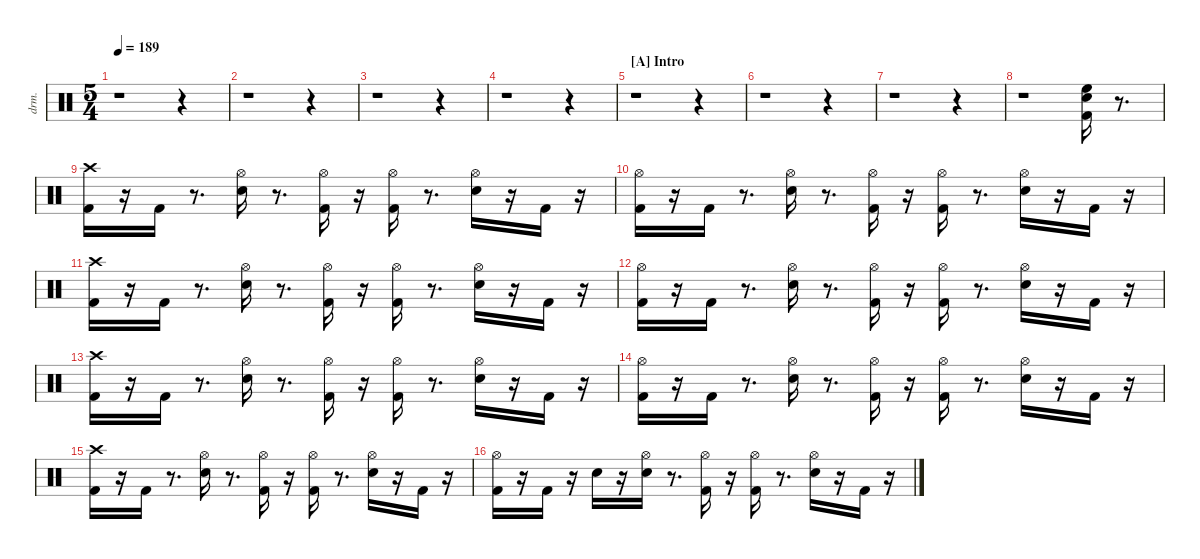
\defaultSystemsLayout 4
\hideDynamics
\bracketExtendMode nobrackets
\track ("EZdrummer 3" "drm.") {instrument percussion}
\staff {score}
\articulation defaults
\ts (5 4)
\tempo 189
\clef neutral
\ks aminor
r.1{dy fff} r.4 |
r.1 r.4 |
r.1 r.4 |
r.1 r.4 |
\section ("A" "Intro")
r.1 r.4 |
r.1 r.4 |
r.1 r.4 |
r.1 ("Kick (hit) 2" "Snare (hit) 2" "High Floor Tom (hit)").16 r.8{d} |
("Kick (hit) 2" "Crash high (hit)"{acc #}).16 r.16 "Kick (hit) 2".16{dy ff} r.8{d} ("Snare (hit) 2" "Hi-Hat (open)"{acc #}).16{dy fff} r.8{d} ("Kick (hit) 2" "Hi-Hat (open)"{acc #}).16{dy mf} r.16 ("Kick (hit) 2" "Hi-Hat (open)"{acc #}).16{dy fff} r.8{d} ("Snare (hit) 2" "Hi-Hat (open)"{acc #}).16{dy ff} r.16 "Kick (hit) 2".16{dy mf} r.16 |
("Kick (hit) 2" "Hi-Hat (open)"{acc #}).16{dy fff} r.16 "Kick (hit) 2".16{dy mf} r.8{d} ("Snare (hit) 2" "Hi-Hat (open)"{acc #}).16{dy fff} r.8{d} ("Kick (hit) 2" "Hi-Hat (open)"{acc #}).16{dy ff} r.16 ("Kick (hit) 2" "Hi-Hat (open)"{acc #}).16 r.8{d} ("Snare (hit) 2" "Hi-Hat (open)"{acc #}).16 r.16 "Kick (hit) 2".16{dy mf} r.16 |
("Kick (hit) 2" "Crash high (hit)"{acc #}).16{dy fff} r.16 "Kick (hit) 2".16{dy ff} r.8{d} ("Snare (hit) 2" "Hi-Hat (open)"{acc #}).16{dy fff} r.8{d} ("Kick (hit) 2" "Hi-Hat (open)"{acc #}).16{dy mf} r.16 ("Kick (hit) 2" "Hi-Hat (open)"{acc #}).16{dy fff} r.8{d} ("Snare (hit) 2" "Hi-Hat (open)"{acc #}).16{dy ff} r.16 "Kick (hit) 2".16{dy mf} r.16 |
("Kick (hit) 2" "Hi-Hat (open)"{acc #}).16{dy fff} r.16 "Kick (hit) 2".16{dy mf} r.8{d} ("Snare (hit) 2" "Hi-Hat (open)"{acc #}).16{dy fff} r.8{d} ("Kick (hit) 2" "Hi-Hat (open)"{acc #}).16{dy ff} r.16 ("Kick (hit) 2" "Hi-Hat (open)"{acc #}).16 r.8{d} ("Snare (hit) 2" "Hi-Hat (open)"{acc #}).16 r.16 "Kick (hit) 2".16{dy mf} r.16 |
("Kick (hit) 2" "Crash high (hit)"{acc #}).16{dy fff} r.16 "Kick (hit) 2".16{dy ff} r.8{d} ("Snare (hit) 2" "Hi-Hat (open)"{acc #}).16{dy fff} r.8{d} ("Kick (hit) 2" "Hi-Hat (open)"{acc #}).16{dy mf} r.16 ("Kick (hit) 2" "Hi-Hat (open)"{acc #}).16{dy fff} r.8{d} ("Snare (hit) 2" "Hi-Hat (open)"{acc #}).16{dy ff} r.16 "Kick (hit) 2".16{dy mf} r.16 |
("Kick (hit) 2" "Hi-Hat (open)"{acc #}).16{dy fff} r.16 "Kick (hit) 2".16{dy mf} r.8{d} ("Snare (hit) 2" "Hi-Hat (open)"{acc #}).16{dy fff} r.8{d} ("Kick (hit) 2" "Hi-Hat (open)"{acc #}).16{dy mf} r.16 ("Kick (hit) 2" "Hi-Hat (open)"{acc #}).16{dy fff} r.8{d} ("Snare (hit) 2" "Hi-Hat (open)"{acc #}).16{dy ff} r.16 "Kick (hit) 2".16{dy mf} r.16 |
("Kick (hit) 2" "Crash high (hit)"{acc #}).16{dy fff} r.16 "Kick (hit) 2".16{dy f} r.8{d} ("Snare (hit) 2" "Hi-Hat (open)"{acc #}).16{dy fff} r.8{d} ("Kick (hit) 2" "Hi-Hat (open)"{acc #}).16{dy mf} r.16 ("Kick (hit) 2" "Hi-Hat (open)"{acc #}).16{dy fff} r.8{d} ("Snare (hit) 2" "Hi-Hat (open)"{acc #}).16{dy ff} r.16 "Kick (hit) 2".16{dy mp} r.16 |
("Kick (hit) 2" "Hi-Hat (open)"{acc #}).16{dy fff} r.16 "Kick (hit) 2".16{dy mf} r.16 "Snare (hit) 2".16{dy p} r.16 ("Snare (hit) 2" "Hi-Hat (open)"{acc #}).16{dy fff} r.8{d} ("Kick (hit) 2" "Hi-Hat (open)"{acc #}).16{dy mp} r.16 ("Kick (hit) 2" "Hi-Hat (open)"{acc #}).16{dy fff} r.8{d} ("Snare (hit) 2" "Hi-Hat (open)"{acc #}).16{dy ff} r.16 "Kick (hit) 2".16 r.16
